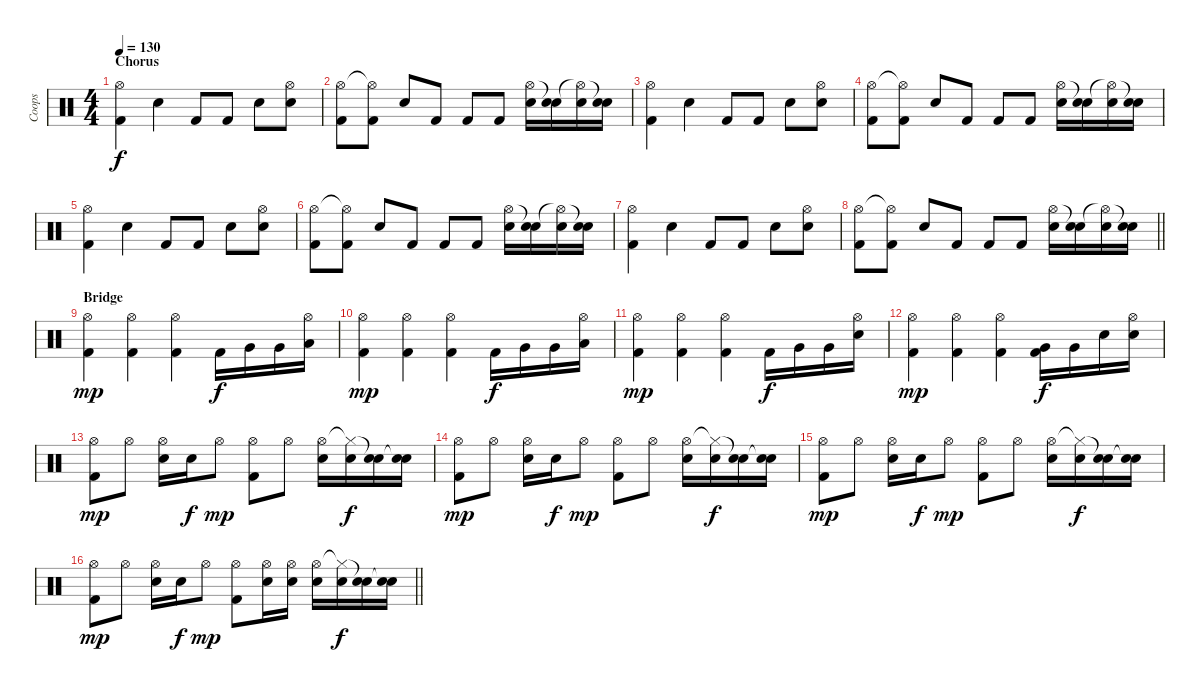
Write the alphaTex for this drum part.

\track ("Coops" "Coops") {instrument percussion}
\staff {score}
\articulation defaults
\ts (4 4)
\section ("" "Chorus")
\tempo 130
\clef neutral
\ks c
("Hi-Hat (open)" "Kick (hit) 2").4{dy f} "Snare (hit) 2".4 "Kick (hit) 2".8 "Kick (hit) 2".8 "Snare (hit) 2".8 ("Hi-Hat (open)" "Snare (hit) 2").8 |
("Hi-Hat (open)" "Kick (hit) 2").8 ("Hi-Hat (open)"{t} "Kick (hit) 2").8 "Snare (hit) 2".8 "Kick (hit) 2".8 "Kick (hit) 2".8 "Kick (hit) 2".8 ("Hi-Hat (open)" "Snare (hit) 2").16 ("Snare (hit)"{t} "Snare (hit) 2").16 ("Hi-Hat (open)"{t} "Snare (hit) 2").16 ("Snare (hit)"{t} "Snare (hit) 2").16 |
("Hi-Hat (open)" "Kick (hit) 2").4 "Snare (hit) 2".4 "Kick (hit) 2".8 "Kick (hit) 2".8 "Snare (hit) 2".8 ("Hi-Hat (open)" "Snare (hit) 2").8 |
("Hi-Hat (open)" "Kick (hit) 2").8 ("Hi-Hat (open)"{t} "Kick (hit) 2").8 "Snare (hit) 2".8 "Kick (hit) 2".8 "Kick (hit) 2".8 "Kick (hit) 2".8 ("Hi-Hat (open)" "Snare (hit) 2").16 ("Snare (hit)"{t} "Snare (hit) 2").16 ("Hi-Hat (open)"{t} "Snare (hit) 2").16 ("Snare (hit)"{t} "Snare (hit) 2").16 |
("Hi-Hat (open)" "Kick (hit) 2").4 "Snare (hit) 2".4 "Kick (hit) 2".8 "Kick (hit) 2".8 "Snare (hit) 2".8 ("Hi-Hat (open)" "Snare (hit) 2").8 |
("Hi-Hat (open)" "Kick (hit) 2").8 ("Hi-Hat (open)"{t} "Kick (hit) 2").8 "Snare (hit) 2".8 "Kick (hit) 2".8 "Kick (hit) 2".8 "Kick (hit) 2".8 ("Hi-Hat (open)" "Snare (hit) 2").16 ("Snare (hit)"{t} "Snare (hit) 2").16 ("Hi-Hat (open)"{t} "Snare (hit) 2").16 ("Snare (hit)"{t} "Snare (hit) 2").16 |
("Hi-Hat (open)" "Kick (hit) 2").4 "Snare (hit) 2".4 "Kick (hit) 2".8 "Kick (hit) 2".8 "Snare (hit) 2".8 ("Hi-Hat (open)" "Snare (hit) 2").8 |
\barLineRight lightlight
("Hi-Hat (open)" "Kick (hit) 2").8 ("Hi-Hat (open)"{t} "Kick (hit) 2").8 "Snare (hit) 2".8 "Kick (hit) 2".8 "Kick (hit) 2".8 "Kick (hit) 2".8 ("Hi-Hat (open)" "Snare (hit) 2").16 ("Snare (hit)"{t} "Snare (hit) 2").16 ("Hi-Hat (open)"{t} "Snare (hit) 2").16 ("Snare (hit)"{t} "Snare (hit) 2").16 |
\section ("" "Bridge")
("Hi-Hat (open)" "Kick (hit) 2").4{dy mp} ("Hi-Hat (open)" "Kick (hit) 2").4 ("Hi-Hat (open)" "Kick (hit) 2").4 "Kick (hit) 2".16{dy f} "Very Low Tom (hit)".16 "Very Low Tom (hit)".16 ("Hi-Hat (open)" "Low Floor Tom (hit)").16 |
("Hi-Hat (open)" "Kick (hit) 2").4{dy mp} ("Hi-Hat (open)" "Kick (hit) 2").4 ("Hi-Hat (open)" "Kick (hit) 2").4 "Kick (hit) 2".16{dy f} "Very Low Tom (hit)".16 "Very Low Tom (hit)".16 ("Hi-Hat (open)" "Low Floor Tom (hit)").16 |
("Hi-Hat (open)" "Kick (hit) 2").4{dy mp} ("Hi-Hat (open)" "Kick (hit) 2").4 ("Hi-Hat (open)" "Kick (hit) 2").4 "Kick (hit) 2".16{dy f} "Very Low Tom (hit)".16 "Very Low Tom (hit)".16 ("Hi-Hat (open)" "Snare (hit) 2").16 |
("Hi-Hat (open)" "Kick (hit) 2").4{dy mp} ("Hi-Hat (open)" "Kick (hit) 2").4 ("Hi-Hat (open)" "Kick (hit) 2").4 ("Very Low Tom (hit)" "Kick (hit) 2").16{dy f} "Very Low Tom (hit)".16 "Snare (hit) 2".16 ("Hi-Hat (open)" "Snare (hit) 2").16 |
("Hi-Hat (open)" "Kick (hit) 2").8{dy mp} "Hi-Hat (open)".8 ("Hi-Hat (open)" "Snare (hit) 2").16 "Snare (hit) 2".16{dy f} "Hi-Hat (open)".8{dy mp} ("Hi-Hat (open)" "Kick (hit) 2").8 "Hi-Hat (open)".8 ("Hi-Hat (open)" "Snare (hit) 2").16 ("Hi-Hat (closed)"{t} "Snare (hit) 2").16{dy f} ("Snare (hit)"{t} "Snare (hit) 2").16 ("Snare (hit)"{t} "Snare (hit) 2").16 |
("Hi-Hat (open)" "Kick (hit) 2").8{dy mp} "Hi-Hat (open)".8 ("Hi-Hat (open)" "Snare (hit) 2").16 "Snare (hit) 2".16{dy f} "Hi-Hat (open)".8{dy mp} ("Hi-Hat (open)" "Kick (hit) 2").8 "Hi-Hat (open)".8 ("Hi-Hat (open)" "Snare (hit) 2").16 ("Hi-Hat (closed)"{t} "Snare (hit) 2").16{dy f} ("Snare (hit)"{t} "Snare (hit) 2").16 ("Snare (hit)"{t} "Snare (hit) 2").16 |
("Hi-Hat (open)" "Kick (hit) 2").8{dy mp} "Hi-Hat (open)".8 ("Hi-Hat (open)" "Snare (hit) 2").16 "Snare (hit) 2".16{dy f} "Hi-Hat (open)".8{dy mp} ("Hi-Hat (open)" "Kick (hit) 2").8 "Hi-Hat (open)".8 ("Hi-Hat (open)" "Snare (hit) 2").16 ("Hi-Hat (closed)"{t} "Snare (hit) 2").16{dy f} ("Snare (hit)"{t} "Snare (hit) 2").16 ("Snare (hit)"{t} "Snare (hit) 2").16 |
\barLineRight lightlight
("Hi-Hat (open)" "Kick (hit) 2").8{dy mp} "Hi-Hat (open)".8 ("Hi-Hat (open)" "Snare (hit) 2").16 "Snare (hit) 2".16{dy f} "Hi-Hat (open)".8{dy mp} ("Hi-Hat (open)" "Kick (hit) 2").8 ("Hi-Hat (open)" "Snare (hit) 2").16 ("Hi-Hat (open)" "Snare (hit) 2").16 ("Hi-Hat (open)" "Snare (hit) 2").16 ("Hi-Hat (closed)"{t} "Snare (hit) 2").16{dy f} ("Snare (hit)"{t} "Snare (hit) 2").16 ("Snare (hit)"{t} "Snare (hit) 2").16
